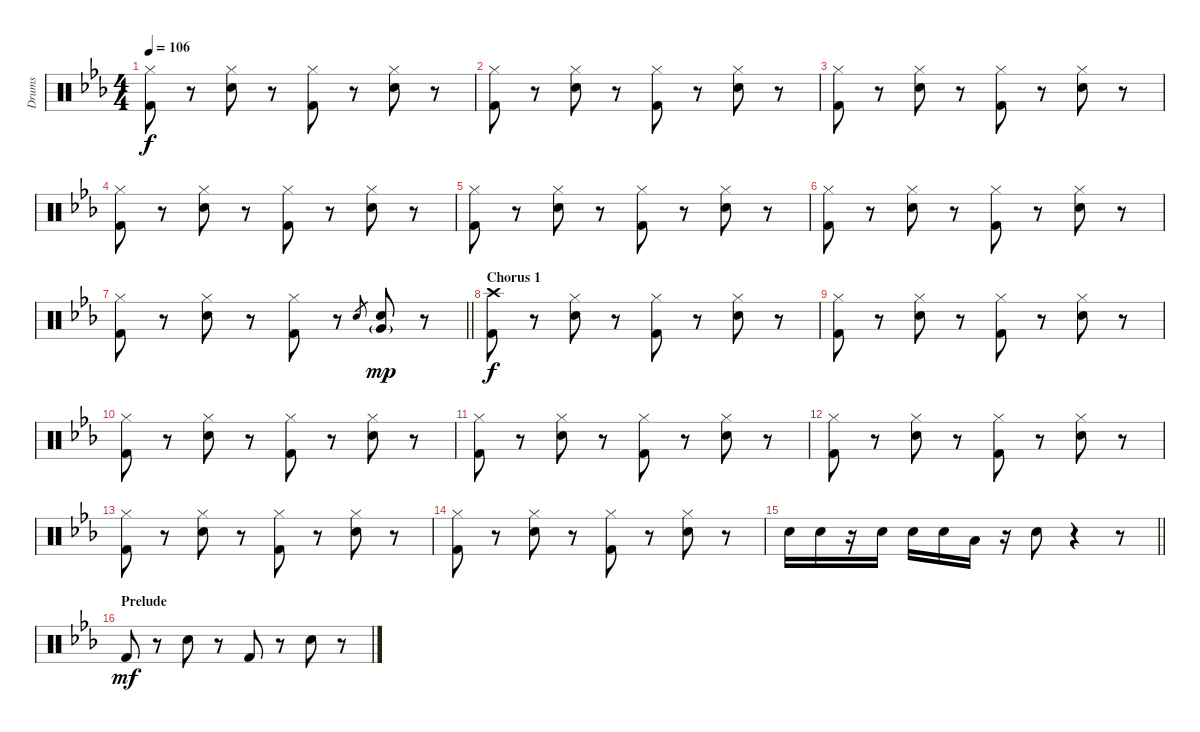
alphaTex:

\track ("Drums" "Drums") {instrument percussion}
\staff {score}
\articulation defaults
\ts (4 4)
\tempo 106
\clef neutral
\ks cminor
("Hi-Hat (closed)" "Kick (hit) 2").8{dy f} r.8 ("Hi-Hat (closed)" "Snare (hit) 2").8 r.8 ("Hi-Hat (closed)" "Kick (hit) 2").8 r.8 ("Hi-Hat (closed)" "Snare (hit) 2").8 r.8 |
("Hi-Hat (closed)" "Kick (hit) 2").8 r.8 ("Hi-Hat (closed)" "Snare (hit) 2").8 r.8 ("Hi-Hat (closed)" "Kick (hit) 2").8 r.8 ("Hi-Hat (closed)" "Snare (hit) 2").8 r.8 |
("Hi-Hat (closed)" "Kick (hit) 2").8 r.8 ("Hi-Hat (closed)" "Snare (hit) 2").8 r.8 ("Hi-Hat (closed)" "Kick (hit) 2").8 r.8 ("Hi-Hat (closed)" "Snare (hit) 2").8 r.8 |
("Hi-Hat (closed)" "Kick (hit) 2").8 r.8 ("Hi-Hat (closed)" "Snare (hit) 2").8 r.8 ("Hi-Hat (closed)" "Kick (hit) 2").8 r.8 ("Hi-Hat (closed)" "Snare (hit) 2").8 r.8 |
("Hi-Hat (closed)" "Kick (hit) 2").8 r.8 ("Hi-Hat (closed)" "Snare (hit) 2").8 r.8 ("Hi-Hat (closed)" "Kick (hit) 2").8 r.8 ("Hi-Hat (closed)" "Snare (hit) 2").8 r.8 |
("Hi-Hat (closed)" "Kick (hit) 2").8 r.8 ("Hi-Hat (closed)" "Snare (hit) 2").8 r.8 ("Hi-Hat (closed)" "Kick (hit) 2").8 r.8 ("Hi-Hat (closed)" "Snare (hit) 2").8 r.8 |
\barLineRight lightlight
("Hi-Hat (closed)" "Kick (hit) 2").8 r.8 ("Hi-Hat (closed)" "Snare (hit) 2").8 r.8 ("Hi-Hat (closed)" "Kick (hit) 2").8 r.8 "Snare (hit) 2".8{gr} ("Snare (hit) 2" "Very Low Tom (hit)"{g}).8{dy mp} r.8 |
\section ("" "Chorus 1")
("Crash high (hit)" "Kick (hit) 2").8{dy f} r.8 ("Hi-Hat (closed)" "Snare (hit) 2").8 r.8 ("Hi-Hat (closed)" "Kick (hit) 2").8 r.8 ("Hi-Hat (closed)" "Snare (hit) 2").8 r.8 |
("Hi-Hat (closed)" "Kick (hit) 2").8 r.8 ("Hi-Hat (closed)" "Snare (hit) 2").8 r.8 ("Hi-Hat (closed)" "Kick (hit) 2").8 r.8 ("Hi-Hat (closed)" "Snare (hit) 2").8 r.8 |
("Hi-Hat (closed)" "Kick (hit) 2").8 r.8 ("Hi-Hat (closed)" "Snare (hit) 2").8 r.8 ("Hi-Hat (closed)" "Kick (hit) 2").8 r.8 ("Hi-Hat (closed)" "Snare (hit) 2").8 r.8 |
("Hi-Hat (closed)" "Kick (hit) 2").8 r.8 ("Hi-Hat (closed)" "Snare (hit) 2").8 r.8 ("Hi-Hat (closed)" "Kick (hit) 2").8 r.8 ("Hi-Hat (closed)" "Snare (hit) 2").8 r.8 |
("Hi-Hat (closed)" "Kick (hit) 2").8 r.8 ("Hi-Hat (closed)" "Snare (hit) 2").8 r.8 ("Hi-Hat (closed)" "Kick (hit) 2").8 r.8 ("Hi-Hat (closed)" "Snare (hit) 2").8 r.8 |
("Hi-Hat (closed)" "Kick (hit) 2").8 r.8 ("Hi-Hat (closed)" "Snare (hit) 2").8 r.8 ("Hi-Hat (closed)" "Kick (hit) 2").8 r.8 ("Hi-Hat (closed)" "Snare (hit) 2").8 r.8 |
("Hi-Hat (closed)" "Kick (hit) 2").8 r.8 ("Hi-Hat (closed)" "Snare (hit) 2").8 r.8 ("Hi-Hat (closed)" "Kick (hit) 2").8 r.8 ("Hi-Hat (closed)" "Snare (hit) 2").8 r.8 |
\barLineRight lightlight "Snare (hit) 2".16 "Snare (hit) 2".16
r.16 "Snare (hit) 2".16 "Snare (hit) 2".16 "Snare (hit) 2".16 "Low Tom (hit)".16 r.16 "Snare (hit) 2".8 r.4 r.8 |
\section ("" "Prelude")
"Kick (hit) 2".8{dy mf} r.8 "Snare (hit) 2".8 r.8 "Kick (hit) 2".8 r.8 "Snare (hit) 2".8 r.8
